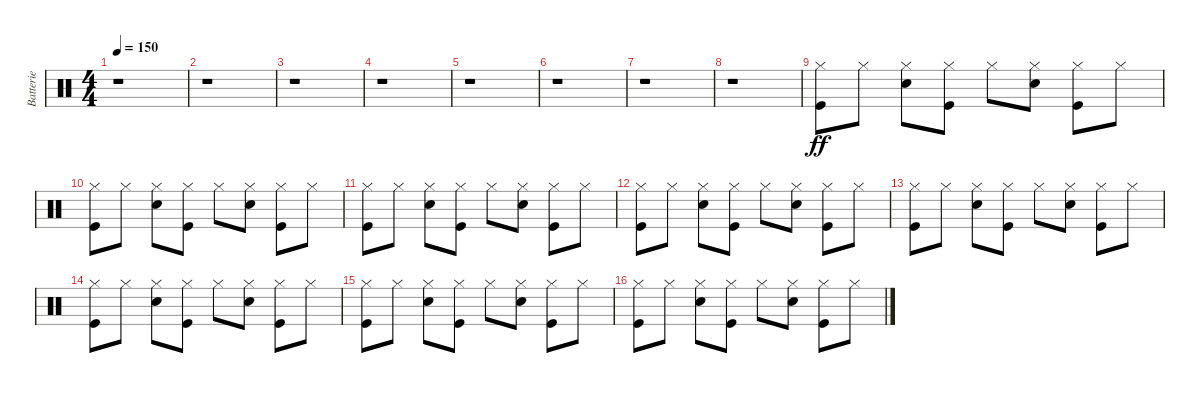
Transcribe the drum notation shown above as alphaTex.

\track ("Batterie" "Batterie") {instrument percussion}
\staff {score}
\articulation defaults
\ts (4 4)
\tempo 150
\clef neutral
\ks c
r.1{dy ff} |
r.1 |
r.1 |
r.1 |
r.1 |
r.1 |
r.1 |
r.1 |
("Kick (hit)" "Hi-Hat (closed)").8 "Hi-Hat (closed)".8 ("Electric Snare (hit)" "Hi-Hat (closed)").8 ("Kick (hit)" "Hi-Hat (closed)").8 "Hi-Hat (closed)".8 ("Electric Snare (hit)" "Hi-Hat (closed)").8 ("Kick (hit)" "Hi-Hat (closed)").8 "Hi-Hat (closed)".8 |
("Kick (hit)" "Hi-Hat (closed)").8 "Hi-Hat (closed)".8 ("Electric Snare (hit)" "Hi-Hat (closed)").8 ("Kick (hit)" "Hi-Hat (closed)").8 "Hi-Hat (closed)".8 ("Electric Snare (hit)" "Hi-Hat (closed)").8 ("Kick (hit)" "Hi-Hat (closed)").8 "Hi-Hat (closed)".8 |
("Kick (hit)" "Hi-Hat (closed)").8 "Hi-Hat (closed)".8 ("Electric Snare (hit)" "Hi-Hat (closed)").8 ("Kick (hit)" "Hi-Hat (closed)").8 "Hi-Hat (closed)".8 ("Electric Snare (hit)" "Hi-Hat (closed)").8 ("Kick (hit)" "Hi-Hat (closed)").8 "Hi-Hat (closed)".8 |
("Kick (hit)" "Hi-Hat (closed)").8 "Hi-Hat (closed)".8 ("Electric Snare (hit)" "Hi-Hat (closed)").8 ("Kick (hit)" "Hi-Hat (closed)").8 "Hi-Hat (closed)".8 ("Electric Snare (hit)" "Hi-Hat (closed)").8 ("Kick (hit)" "Hi-Hat (closed)").8 "Hi-Hat (closed)".8 |
("Kick (hit)" "Hi-Hat (closed)").8 "Hi-Hat (closed)".8 ("Electric Snare (hit)" "Hi-Hat (closed)").8 ("Kick (hit)" "Hi-Hat (closed)").8 "Hi-Hat (closed)".8 ("Electric Snare (hit)" "Hi-Hat (closed)").8 ("Kick (hit)" "Hi-Hat (closed)").8 "Hi-Hat (closed)".8 |
("Kick (hit)" "Hi-Hat (closed)").8 "Hi-Hat (closed)".8 ("Electric Snare (hit)" "Hi-Hat (closed)").8 ("Kick (hit)" "Hi-Hat (closed)").8 "Hi-Hat (closed)".8 ("Electric Snare (hit)" "Hi-Hat (closed)").8 ("Kick (hit)" "Hi-Hat (closed)").8 "Hi-Hat (closed)".8 |
("Kick (hit)" "Hi-Hat (closed)").8 "Hi-Hat (closed)".8 ("Electric Snare (hit)" "Hi-Hat (closed)").8 ("Kick (hit)" "Hi-Hat (closed)").8 "Hi-Hat (closed)".8 ("Electric Snare (hit)" "Hi-Hat (closed)").8 ("Kick (hit)" "Hi-Hat (closed)").8 "Hi-Hat (closed)".8 |
("Kick (hit)" "Hi-Hat (closed)").8 "Hi-Hat (closed)".8 ("Electric Snare (hit)" "Hi-Hat (closed)").8 ("Kick (hit)" "Hi-Hat (closed)").8 "Hi-Hat (closed)".8 ("Electric Snare (hit)" "Hi-Hat (closed)").8 ("Kick (hit)" "Hi-Hat (closed)").8 "Hi-Hat (closed)".8
